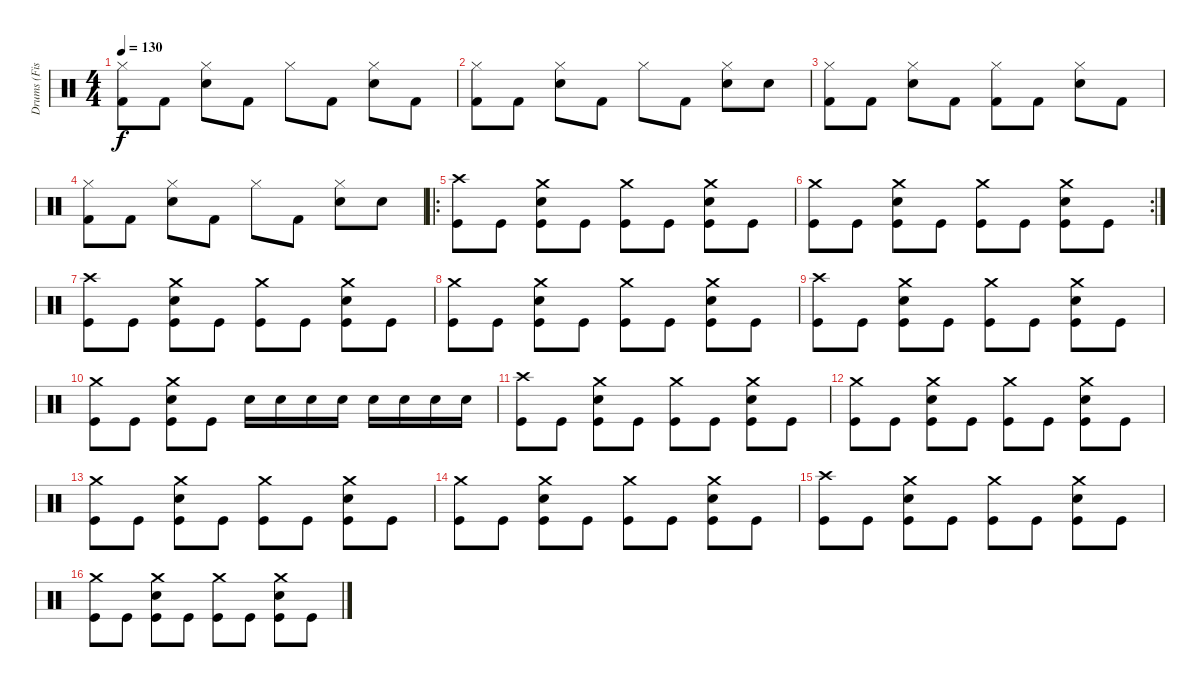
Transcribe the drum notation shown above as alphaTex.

\track ("Drums (Fish)" "Drums (Fis") {instrument percussion}
\staff {score}
\articulation defaults
\ts (4 4)
\tempo 130
\clef neutral
\ks c
("Hi-Hat (closed)" "Kick (hit) 2").8{dy f} "Kick (hit) 2".8 ("Hi-Hat (closed)" "Electric Snare (hit)").8 "Kick (hit) 2".8 "Hi-Hat (closed)".8 "Kick (hit) 2".8 ("Hi-Hat (closed)" "Electric Snare (hit)").8 "Kick (hit) 2".8 |
("Hi-Hat (closed)" "Kick (hit) 2").8 "Kick (hit) 2".8 ("Hi-Hat (closed)" "Electric Snare (hit)").8 "Kick (hit) 2".8 "Hi-Hat (closed)".8 "Kick (hit) 2".8 ("Hi-Hat (closed)" "Electric Snare (hit)").8 "Electric Snare (hit)".8 |
("Hi-Hat (closed)" "Kick (hit) 2").8 "Kick (hit) 2".8 ("Hi-Hat (closed)" "Electric Snare (hit)").8 "Kick (hit) 2".8 ("Hi-Hat (closed)" "Kick (hit) 2").8 "Kick (hit) 2".8 ("Hi-Hat (closed)" "Electric Snare (hit)").8 "Kick (hit) 2".8 |
("Hi-Hat (closed)" "Kick (hit) 2").8 "Kick (hit) 2".8 ("Hi-Hat (closed)" "Electric Snare (hit)").8 "Kick (hit) 2".8 "Hi-Hat (closed)".8 "Kick (hit) 2".8 ("Hi-Hat (closed)" "Electric Snare (hit)").8 "Electric Snare (hit)".8 |
\ro
("Crash high (hit)" "Kick (hit)").8 "Kick (hit)".8 ("Crash medium (hit)" "Electric Snare (hit)" "Kick (hit)").8 "Kick (hit)".8 ("Crash medium (hit)" "Kick (hit)").8 "Kick (hit)".8 ("Crash medium (hit)" "Electric Snare (hit)" "Kick (hit)").8 "Kick (hit)".8 |
\rc 2
("Crash medium (hit)" "Kick (hit)").8 "Kick (hit)".8 ("Crash medium (hit)" "Electric Snare (hit)" "Kick (hit)").8 "Kick (hit)".8 ("Crash medium (hit)" "Kick (hit)").8 "Kick (hit)".8 ("Crash medium (hit)" "Electric Snare (hit)" "Kick (hit)").8 "Kick (hit)".8 |
("Crash high (hit)" "Kick (hit)").8 "Kick (hit)".8 ("Crash medium (hit)" "Electric Snare (hit)" "Kick (hit)").8 "Kick (hit)".8 ("Crash medium (hit)" "Kick (hit)").8 "Kick (hit)".8 ("Crash medium (hit)" "Electric Snare (hit)" "Kick (hit)").8 "Kick (hit)".8 |
("Crash medium (hit)" "Kick (hit)").8 "Kick (hit)".8 ("Crash medium (hit)" "Electric Snare (hit)" "Kick (hit)").8 "Kick (hit)".8 ("Crash medium (hit)" "Kick (hit)").8 "Kick (hit)".8 ("Crash medium (hit)" "Electric Snare (hit)" "Kick (hit)").8 "Kick (hit)".8 |
("Crash high (hit)" "Kick (hit)").8 "Kick (hit)".8 ("Crash medium (hit)" "Electric Snare (hit)" "Kick (hit)").8 "Kick (hit)".8 ("Crash medium (hit)" "Kick (hit)").8 "Kick (hit)".8 ("Crash medium (hit)" "Electric Snare (hit)" "Kick (hit)").8 "Kick (hit)".8 |
("Crash medium (hit)" "Kick (hit)").8 "Kick (hit)".8 ("Crash medium (hit)" "Electric Snare (hit)" "Kick (hit)").8 "Kick (hit)".8 "Snare (hit) 2".16 "Snare (hit) 2".16 "Snare (hit) 2".16 "Snare (hit) 2".16 "Snare (hit) 2".16 "Snare (hit) 2".16 "Snare (hit) 2".16 "Snare (hit) 2".16 |
("Crash high (hit)" "Kick (hit)").8 "Kick (hit)".8 ("Crash medium (hit)" "Electric Snare (hit)" "Kick (hit)").8 "Kick (hit)".8 ("Crash medium (hit)" "Kick (hit)").8 "Kick (hit)".8 ("Crash medium (hit)" "Electric Snare (hit)" "Kick (hit)").8 "Kick (hit)".8 |
("Crash medium (hit)" "Kick (hit)").8 "Kick (hit)".8 ("Crash medium (hit)" "Electric Snare (hit)" "Kick (hit)").8 "Kick (hit)".8 ("Crash medium (hit)" "Kick (hit)").8 "Kick (hit)".8 ("Crash medium (hit)" "Electric Snare (hit)" "Kick (hit)").8 "Kick (hit)".8 |
("Crash medium (hit)" "Kick (hit)").8 "Kick (hit)".8 ("Crash medium (hit)" "Electric Snare (hit)" "Kick (hit)").8 "Kick (hit)".8 ("Crash medium (hit)" "Kick (hit)").8 "Kick (hit)".8 ("Crash medium (hit)" "Electric Snare (hit)" "Kick (hit)").8 "Kick (hit)".8 |
("Crash medium (hit)" "Kick (hit)").8 "Kick (hit)".8 ("Crash medium (hit)" "Electric Snare (hit)" "Kick (hit)").8 "Kick (hit)".8 ("Crash medium (hit)" "Kick (hit)").8 "Kick (hit)".8 ("Crash medium (hit)" "Electric Snare (hit)" "Kick (hit)").8 "Kick (hit)".8 |
("Crash high (hit)" "Kick (hit)").8 "Kick (hit)".8 ("Crash medium (hit)" "Electric Snare (hit)" "Kick (hit)").8 "Kick (hit)".8 ("Crash medium (hit)" "Kick (hit)").8 "Kick (hit)".8 ("Crash medium (hit)" "Electric Snare (hit)" "Kick (hit)").8 "Kick (hit)".8 |
("Crash medium (hit)" "Kick (hit)").8 "Kick (hit)".8 ("Crash medium (hit)" "Electric Snare (hit)" "Kick (hit)").8 "Kick (hit)".8 ("Crash medium (hit)" "Kick (hit)").8 "Kick (hit)".8 ("Crash medium (hit)" "Electric Snare (hit)" "Kick (hit)").8 "Kick (hit)".8
